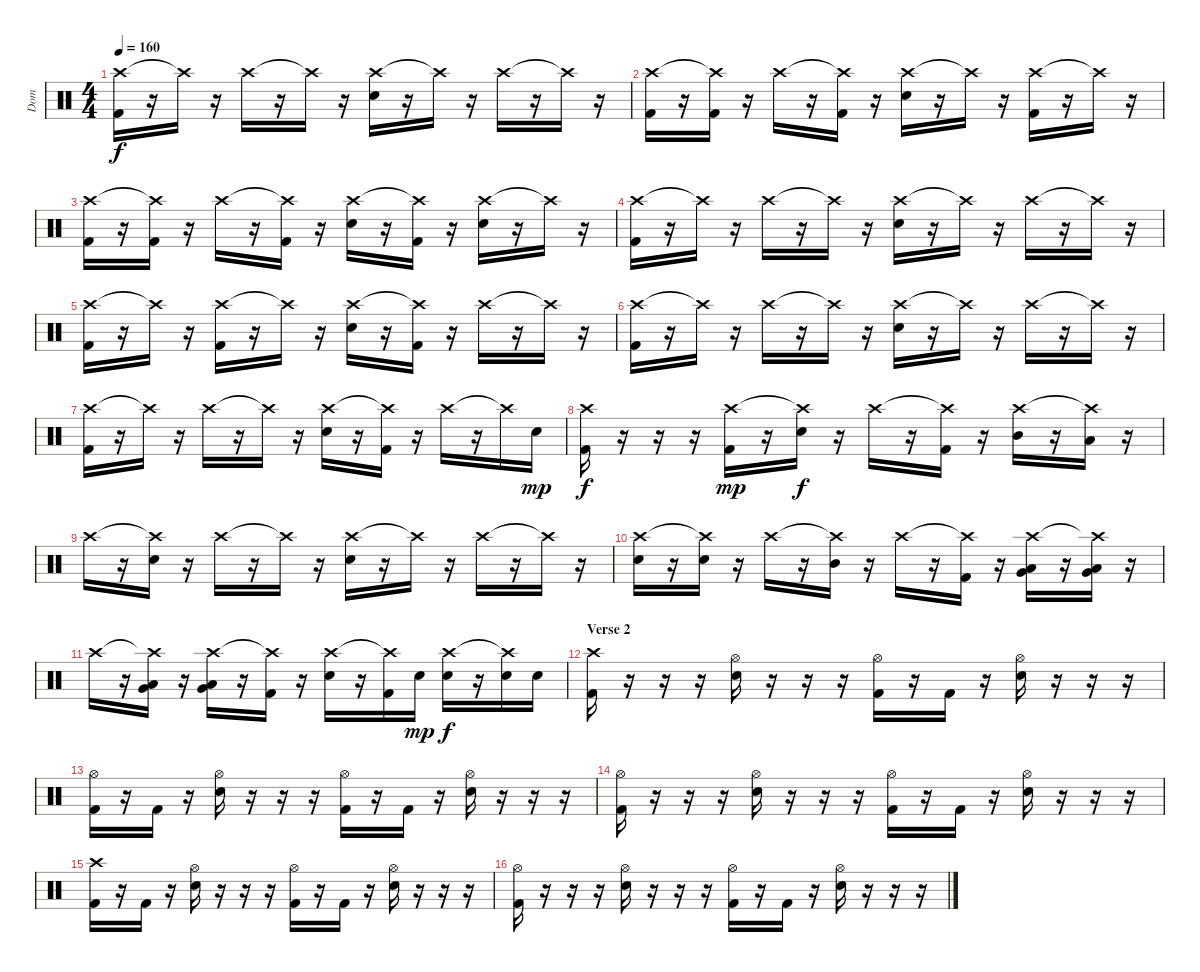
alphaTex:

\track ("Dom" "Dom") {instrument percussion}
\staff {score}
\articulation defaults
\ts (4 4)
\tempo 160
\clef neutral
\ks c
("Crash high (hit)" "Kick (hit) 2").16{dy f} r.16 "Crash high (hit)"{t}.16 r.16 "Crash high (hit)".16 r.16 "Crash high (hit)"{t}.16 r.16 ("Crash high (hit)" "Electric Snare (hit)").16 r.16 "Crash high (hit)"{t}.16 r.16 "Crash high (hit)".16 r.16 "Crash high (hit)"{t}.16 r.16 |
("Crash high (hit)" "Kick (hit) 2").16 r.16 ("Crash high (hit)"{t} "Kick (hit) 2").16 r.16 "Crash high (hit)".16 r.16 ("Crash high (hit)"{t} "Kick (hit) 2").16 r.16 ("Crash high (hit)" "Electric Snare (hit)").16 r.16 "Crash high (hit)"{t}.16 r.16 ("Crash high (hit)" "Kick (hit) 2").16 r.16 "Crash high (hit)"{t}.16 r.16 |
("Crash high (hit)" "Kick (hit) 2").16 r.16 ("Crash high (hit)"{t} "Kick (hit) 2").16 r.16 "Crash high (hit)".16 r.16 ("Crash high (hit)"{t} "Kick (hit) 2").16 r.16 ("Crash high (hit)" "Electric Snare (hit)").16 r.16 ("Crash high (hit)"{t} "Kick (hit) 2").16 r.16 ("Crash high (hit)" "Electric Snare (hit)").16 r.16 "Crash high (hit)"{t}.16 r.16 |
("Crash high (hit)" "Kick (hit) 2").16 r.16 "Crash high (hit)"{t}.16 r.16 "Crash high (hit)".16 r.16 "Crash high (hit)"{t}.16 r.16 ("Crash high (hit)" "Electric Snare (hit)").16 r.16 "Crash high (hit)"{t}.16 r.16 "Crash high (hit)".16 r.16 "Crash high (hit)"{t}.16 r.16 |
("Crash high (hit)" "Kick (hit) 2").16 r.16 "Crash high (hit)"{t}.16 r.16 ("Crash high (hit)" "Kick (hit) 2").16 r.16 "Crash high (hit)"{t}.16 r.16 ("Crash high (hit)" "Electric Snare (hit)").16 r.16 ("Crash high (hit)"{t} "Kick (hit) 2").16 r.16 "Crash high (hit)".16 r.16 "Crash high (hit)"{t}.16 r.16 |
("Crash high (hit)" "Kick (hit) 2").16 r.16 "Crash high (hit)"{t}.16 r.16 "Crash high (hit)".16 r.16 "Crash high (hit)"{t}.16 r.16 ("Crash high (hit)" "Electric Snare (hit)").16 r.16 "Crash high (hit)"{t}.16 r.16 "Crash high (hit)".16 r.16 "Crash high (hit)"{t}.16 r.16 |
("Crash high (hit)" "Kick (hit) 2").16 r.16 "Crash high (hit)"{t}.16 r.16 "Crash high (hit)".16 r.16 "Crash high (hit)"{t}.16 r.16 ("Crash high (hit)" "Electric Snare (hit)").16 r.16 ("Crash high (hit)"{t} "Kick (hit) 2").16 r.16 "Crash high (hit)".16 r.16 "Crash high (hit)"{t}.16 "Electric Snare (hit)".16{dy mp} |
("Crash high (hit)" "Kick (hit) 2").16{dy f} r.16 r.16 r.16 ("Crash high (hit)" "Kick (hit) 2").16{dy mp} r.16 ("Crash high (hit)"{t} "Electric Snare (hit)").16{dy f} r.16 "Crash high (hit)".16 r.16 ("Crash high (hit)"{t} "Kick (hit) 2").16 r.16 ("Crash high (hit)" "Mid Tom (hit)").16 r.16 ("Crash high (hit)"{t} "Low Tom (hit)").16 r.16 |
"Crash high (hit)".16 r.16 ("Crash high (hit)"{t} "Electric Snare (hit)").16 r.16 "Crash high (hit)".16 r.16 "Crash high (hit)"{t}.16 r.16 ("Crash high (hit)" "Electric Snare (hit)").16 r.16 "Crash high (hit)"{t}.16 r.16 "Crash high (hit)".16 r.16 "Crash high (hit)"{t}.16 r.16 |
("Crash high (hit)" "Electric Snare (hit)").16 r.16 ("Crash high (hit)"{t} "Electric Snare (hit)").16 r.16 "Crash high (hit)".16 r.16 ("Crash high (hit)"{t} "Mid Tom (hit)").16 r.16 "Crash high (hit)".16 r.16 ("Crash high (hit)"{t} "Kick (hit) 2").16 r.16 ("Crash high (hit)" "Low Tom (hit)" "Very Low Tom (hit)").16 r.16 ("Crash high (hit)"{t} "Low Tom (hit)" "Very Low Tom (hit)").16 r.16 |
"Crash high (hit)".16 r.16 ("Crash high (hit)"{t} "Low Tom (hit)" "Very Low Tom (hit)").16 r.16 ("Crash high (hit)" "Low Tom (hit)" "Very Low Tom (hit)").16 r.16 ("Crash high (hit)"{t} "Kick (hit) 2").16 r.16 ("Crash high (hit)" "Electric Snare (hit)").16 r.16 ("Crash high (hit)"{t} "Kick (hit) 2").16 "Electric Snare (hit)".16{dy mp} ("Crash high (hit)" "Electric Snare (hit)").16{dy f} r.16 ("Crash high (hit)"{t} "Electric Snare (hit)").16 "Electric Snare (hit)".16 |
\section ("" "Verse 2")
("Crash high (hit)" "Kick (hit) 2").16 r.16 r.16 r.16 ("Hi-Hat (open)" "Electric Snare (hit)").16 r.16 r.16 r.16 ("Hi-Hat (open)" "Kick (hit) 2").16 r.16 "Kick (hit) 2".16 r.16 ("Hi-Hat (open)" "Electric Snare (hit)").16 r.16 r.16 r.16 |
("Hi-Hat (open)" "Kick (hit) 2").16 r.16 "Kick (hit) 2".16 r.16 ("Hi-Hat (open)" "Electric Snare (hit)").16 r.16 r.16 r.16 ("Hi-Hat (open)" "Kick (hit) 2").16 r.16 "Kick (hit) 2".16 r.16 ("Hi-Hat (open)" "Electric Snare (hit)").16 r.16 r.16 r.16 |
("Hi-Hat (open)" "Kick (hit) 2").16 r.16 r.16 r.16 ("Hi-Hat (open)" "Electric Snare (hit)").16 r.16 r.16 r.16 ("Hi-Hat (open)" "Kick (hit) 2").16 r.16 "Kick (hit) 2".16 r.16 ("Hi-Hat (open)" "Electric Snare (hit)").16 r.16 r.16 r.16 |
("Crash high (hit)" "Kick (hit) 2").16 r.16 "Kick (hit) 2".16 r.16 ("Hi-Hat (open)" "Electric Snare (hit)").16 r.16 r.16 r.16 ("Hi-Hat (open)" "Kick (hit) 2").16 r.16 "Kick (hit) 2".16 r.16 ("Hi-Hat (open)" "Electric Snare (hit)").16 r.16 r.16 r.16 |
("Hi-Hat (open)" "Kick (hit) 2").16 r.16 r.16 r.16 ("Hi-Hat (open)" "Electric Snare (hit)").16 r.16 r.16 r.16 ("Hi-Hat (open)" "Kick (hit) 2").16 r.16 "Kick (hit) 2".16 r.16 ("Hi-Hat (open)" "Electric Snare (hit)").16 r.16 r.16 r.16
